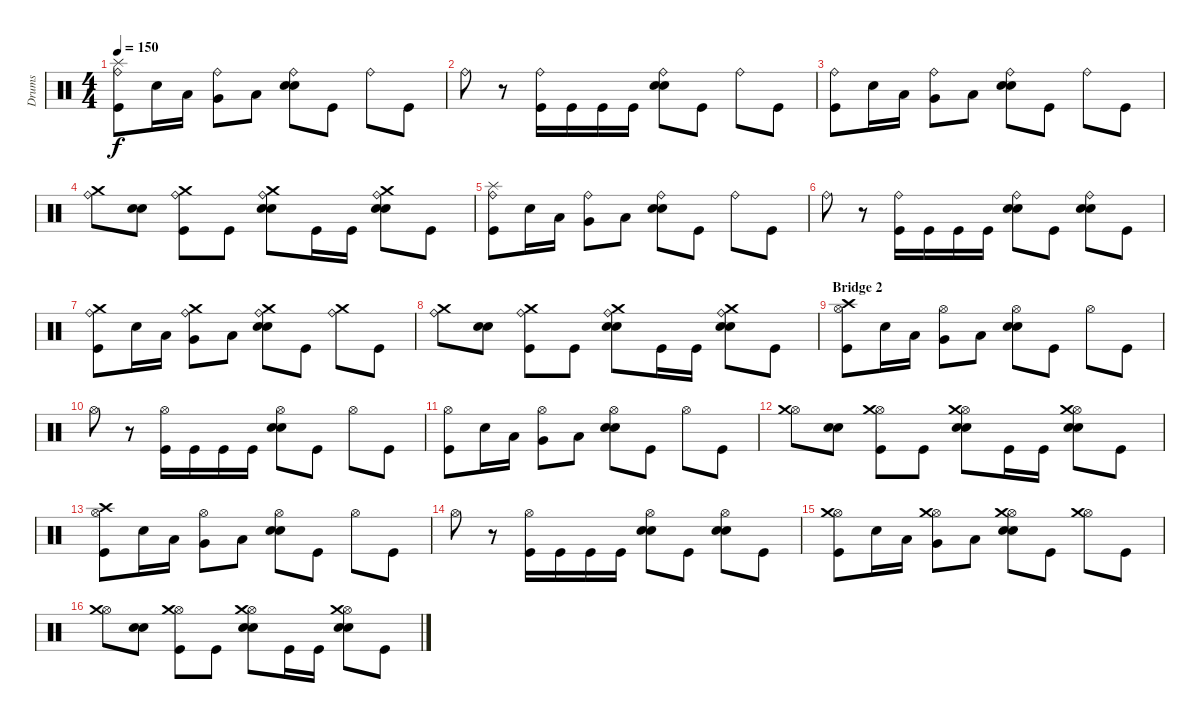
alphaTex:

\track ("Drums" "Drums") {instrument percussion}
\staff {score}
\articulation defaults
\ts (4 4)
\tempo 150
\clef neutral
\ks c
("Kick (hit)" "Ride (bell)" "Splash (hit)").8{dy f} "Electric Snare (hit)".16 "Low Tom (hit)".16 ("Very Low Tom (hit)" "Ride (bell)").8 "Low Floor Tom (hit)".8 ("Electric Snare (hit)" "Electric Snare (hit)" "Ride (bell)").8 "Kick (hit)".8 "Ride (bell)".8 "Kick (hit)".8 |
"Ride (bell)".8 r.8 ("Kick (hit)" "Ride (bell)").16 "Kick (hit)".16 "Kick (hit)".16 "Kick (hit)".16 ("Electric Snare (hit)" "Electric Snare (hit)" "Ride (bell)").8 "Kick (hit)".8 "Ride (bell)".8 "Kick (hit)".8 |
("Kick (hit)" "Ride (bell)").8 "Electric Snare (hit)".16 "Low Tom (hit)".16 ("Very Low Tom (hit)" "Ride (bell)").8 "Low Floor Tom (hit)".8 ("Electric Snare (hit)" "Electric Snare (hit)" "Ride (bell)").8 "Kick (hit)".8 "Ride (bell)".8 "Kick (hit)".8 |
("Ride (bell)" "Crash medium (hit)").8 ("Electric Snare (hit)" "Electric Snare (hit)").8 ("Kick (hit)" "Ride (bell)" "Crash medium (hit)").8 "Kick (hit)".8 ("Electric Snare (hit)" "Electric Snare (hit)" "Ride (bell)" "Crash medium (hit)").8 "Kick (hit)".16 "Kick (hit)".16 ("Electric Snare (hit)" "Electric Snare (hit)" "Ride (bell)" "Crash medium (hit)").8 "Kick (hit)".8 |
("Kick (hit)" "Ride (bell)" "Splash (hit)").8 "Electric Snare (hit)".16 "Low Tom (hit)".16 ("Very Low Tom (hit)" "Ride (bell)").8 "Low Floor Tom (hit)".8 ("Electric Snare (hit)" "Electric Snare (hit)" "Ride (bell)").8 "Kick (hit)".8 "Ride (bell)".8 "Kick (hit)".8 |
"Ride (bell)".8 r.8 ("Kick (hit)" "Ride (bell)").16 "Kick (hit)".16 "Kick (hit)".16 "Kick (hit)".16 ("Electric Snare (hit)" "Electric Snare (hit)" "Ride (bell)").8 "Kick (hit)".8 ("Electric Snare (hit)" "Electric Snare (hit)" "Ride (bell)").8 "Kick (hit)".8 |
("Kick (hit)" "Ride (bell)" "Crash medium (hit)").8 "Electric Snare (hit)".16 "Low Tom (hit)".16 ("Very Low Tom (hit)" "Ride (bell)" "Crash medium (hit)").8 "Low Floor Tom (hit)".8 ("Electric Snare (hit)" "Electric Snare (hit)" "Ride (bell)" "Crash medium (hit)").8 "Kick (hit)".8 ("Ride (bell)" "Crash medium (hit)").8 "Kick (hit)".8 |
("Ride (bell)" "Crash medium (hit)").8 ("Electric Snare (hit)" "Electric Snare (hit)").8 ("Kick (hit)" "Ride (bell)" "Crash medium (hit)").8 "Kick (hit)".8 ("Electric Snare (hit)" "Electric Snare (hit)" "Ride (bell)" "Crash medium (hit)").8 "Kick (hit)".16 "Kick (hit)".16 ("Electric Snare (hit)" "Electric Snare (hit)" "Ride (bell)" "Crash medium (hit)").8 "Kick (hit)".8 |
\section ("" "Bridge 2")
("Kick (hit)" "Hi-Hat (open)" "Crash high (hit)").8 "Electric Snare (hit)".16 "Low Tom (hit)".16 ("Very Low Tom (hit)" "Hi-Hat (open)").8 "Low Floor Tom (hit)".8 ("Electric Snare (hit)" "Electric Snare (hit)" "Hi-Hat (open)").8 "Kick (hit)".8 "Hi-Hat (open)".8 "Kick (hit)".8 |
"Hi-Hat (open)".8 r.8 ("Kick (hit)" "Hi-Hat (open)").16 "Kick (hit)".16 "Kick (hit)".16 "Kick (hit)".16 ("Electric Snare (hit)" "Electric Snare (hit)" "Hi-Hat (open)").8 "Kick (hit)".8 "Hi-Hat (open)".8 "Kick (hit)".8 |
("Kick (hit)" "Hi-Hat (open)").8 "Electric Snare (hit)".16 "Low Tom (hit)".16 ("Very Low Tom (hit)" "Hi-Hat (open)").8 "Low Floor Tom (hit)".8 ("Electric Snare (hit)" "Electric Snare (hit)" "Hi-Hat (open)").8 "Kick (hit)".8 "Hi-Hat (open)".8 "Kick (hit)".8 |
("Hi-Hat (open)" "Crash medium (hit)").8 ("Electric Snare (hit)" "Electric Snare (hit)").8 ("Kick (hit)" "Hi-Hat (open)" "Crash medium (hit)").8 "Kick (hit)".8 ("Electric Snare (hit)" "Electric Snare (hit)" "Hi-Hat (open)" "Crash medium (hit)").8 "Kick (hit)".16 "Kick (hit)".16 ("Electric Snare (hit)" "Electric Snare (hit)" "Hi-Hat (open)" "Crash medium (hit)").8 "Kick (hit)".8 |
("Kick (hit)" "Hi-Hat (open)" "Crash high (hit)").8 "Electric Snare (hit)".16 "Low Tom (hit)".16 ("Very Low Tom (hit)" "Hi-Hat (open)").8 "Low Floor Tom (hit)".8 ("Electric Snare (hit)" "Electric Snare (hit)" "Hi-Hat (open)").8 "Kick (hit)".8 "Hi-Hat (open)".8 "Kick (hit)".8 |
"Hi-Hat (open)".8 r.8 ("Kick (hit)" "Hi-Hat (open)").16 "Kick (hit)".16 "Kick (hit)".16 "Kick (hit)".16 ("Electric Snare (hit)" "Electric Snare (hit)" "Hi-Hat (open)").8 "Kick (hit)".8 ("Electric Snare (hit)" "Electric Snare (hit)" "Hi-Hat (open)").8 "Kick (hit)".8 |
("Kick (hit)" "Hi-Hat (open)" "Crash medium (hit)").8 "Electric Snare (hit)".16 "Low Tom (hit)".16 ("Very Low Tom (hit)" "Hi-Hat (open)" "Crash medium (hit)").8 "Low Floor Tom (hit)".8 ("Electric Snare (hit)" "Electric Snare (hit)" "Hi-Hat (open)" "Crash medium (hit)").8 "Kick (hit)".8 ("Hi-Hat (open)" "Crash medium (hit)").8 "Kick (hit)".8 |
("Hi-Hat (open)" "Crash medium (hit)").8 ("Electric Snare (hit)" "Electric Snare (hit)").8 ("Kick (hit)" "Hi-Hat (open)" "Crash medium (hit)").8 "Kick (hit)".8 ("Electric Snare (hit)" "Electric Snare (hit)" "Hi-Hat (open)" "Crash medium (hit)").8 "Kick (hit)".16 "Kick (hit)".16 ("Electric Snare (hit)" "Electric Snare (hit)" "Hi-Hat (open)" "Crash medium (hit)").8 "Kick (hit)".8
